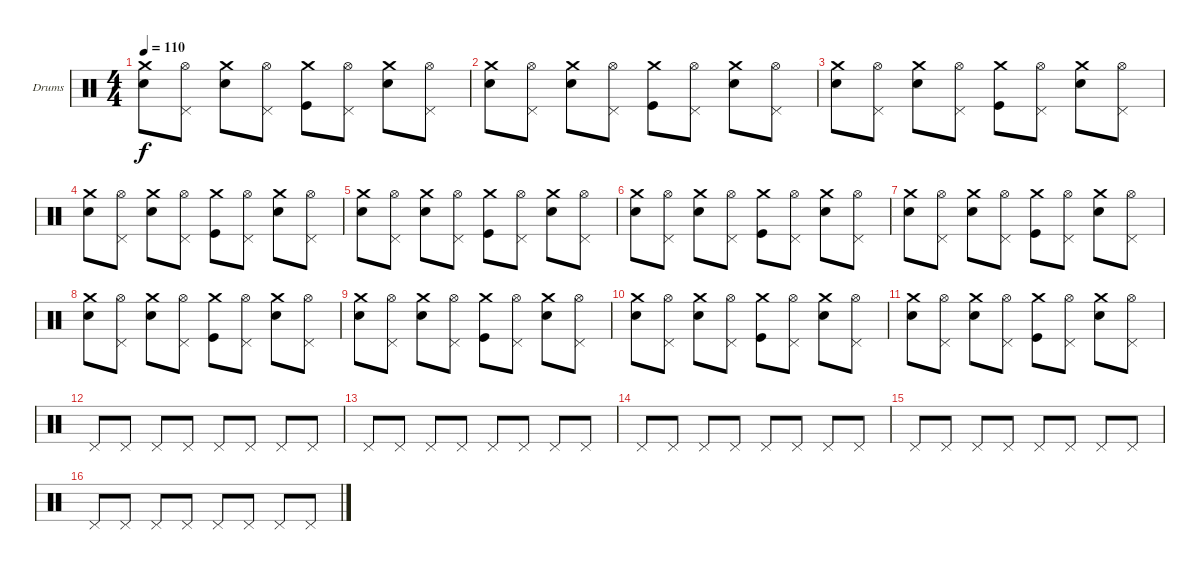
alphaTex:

\defaultSystemsLayout 4
\bracketExtendMode groupsimilarinstruments
\firstSystemTrackNameOrientation horizontal
\otherSystemsTrackNameOrientation horizontal
\track ("Е. Кулаков" "Drums") {instrument percussion}
\staff {score}
\articulation defaults
\ts (4 4)
\tempo 110
\clef neutral
\ks c
("Snare (hit) 2" "Crash medium (hit)").8{dy f} ("Pedal Hi-Hat (hit)" "Hi-Hat (open)").8 ("Snare (hit) 2" "Crash medium (hit)").8 ("Pedal Hi-Hat (hit)" "Hi-Hat (open)").8 ("Kick (hit)" "Crash medium (hit)").8 ("Pedal Hi-Hat (hit)" "Hi-Hat (open)").8 ("Snare (hit) 2" "Crash medium (hit)").8 ("Pedal Hi-Hat (hit)" "Hi-Hat (open)").8 |
("Snare (hit) 2" "Crash medium (hit)").8 ("Pedal Hi-Hat (hit)" "Hi-Hat (open)").8 ("Snare (hit) 2" "Crash medium (hit)").8 ("Pedal Hi-Hat (hit)" "Hi-Hat (open)").8 ("Kick (hit)" "Crash medium (hit)").8 ("Pedal Hi-Hat (hit)" "Hi-Hat (open)").8 ("Snare (hit) 2" "Crash medium (hit)").8 ("Pedal Hi-Hat (hit)" "Hi-Hat (open)").8 |
("Snare (hit) 2" "Crash medium (hit)").8 ("Pedal Hi-Hat (hit)" "Hi-Hat (open)").8 ("Snare (hit) 2" "Crash medium (hit)").8 ("Pedal Hi-Hat (hit)" "Hi-Hat (open)").8 ("Kick (hit)" "Crash medium (hit)").8 ("Pedal Hi-Hat (hit)" "Hi-Hat (open)").8 ("Snare (hit) 2" "Crash medium (hit)").8 ("Pedal Hi-Hat (hit)" "Hi-Hat (open)").8 |
("Snare (hit) 2" "Crash medium (hit)").8 ("Pedal Hi-Hat (hit)" "Hi-Hat (open)").8 ("Snare (hit) 2" "Crash medium (hit)").8 ("Pedal Hi-Hat (hit)" "Hi-Hat (open)").8 ("Kick (hit)" "Crash medium (hit)").8 ("Pedal Hi-Hat (hit)" "Hi-Hat (open)").8 ("Snare (hit) 2" "Crash medium (hit)").8 ("Pedal Hi-Hat (hit)" "Hi-Hat (open)").8 |
("Snare (hit) 2" "Crash medium (hit)").8 ("Pedal Hi-Hat (hit)" "Hi-Hat (open)").8 ("Snare (hit) 2" "Crash medium (hit)").8 ("Pedal Hi-Hat (hit)" "Hi-Hat (open)").8 ("Kick (hit)" "Crash medium (hit)").8 ("Pedal Hi-Hat (hit)" "Hi-Hat (open)").8 ("Snare (hit) 2" "Crash medium (hit)").8 ("Pedal Hi-Hat (hit)" "Hi-Hat (open)").8 |
("Snare (hit) 2" "Crash medium (hit)").8 ("Pedal Hi-Hat (hit)" "Hi-Hat (open)").8 ("Snare (hit) 2" "Crash medium (hit)").8 ("Pedal Hi-Hat (hit)" "Hi-Hat (open)").8 ("Kick (hit)" "Crash medium (hit)").8 ("Pedal Hi-Hat (hit)" "Hi-Hat (open)").8 ("Snare (hit) 2" "Crash medium (hit)").8 ("Pedal Hi-Hat (hit)" "Hi-Hat (open)").8 |
("Snare (hit) 2" "Crash medium (hit)").8 ("Pedal Hi-Hat (hit)" "Hi-Hat (open)").8 ("Snare (hit) 2" "Crash medium (hit)").8 ("Pedal Hi-Hat (hit)" "Hi-Hat (open)").8 ("Kick (hit)" "Crash medium (hit)").8 ("Pedal Hi-Hat (hit)" "Hi-Hat (open)").8 ("Snare (hit) 2" "Crash medium (hit)").8 ("Pedal Hi-Hat (hit)" "Hi-Hat (open)").8 |
("Snare (hit) 2" "Crash medium (hit)").8 ("Pedal Hi-Hat (hit)" "Hi-Hat (open)").8 ("Snare (hit) 2" "Crash medium (hit)").8 ("Pedal Hi-Hat (hit)" "Hi-Hat (open)").8 ("Kick (hit)" "Crash medium (hit)").8 ("Pedal Hi-Hat (hit)" "Hi-Hat (open)").8 ("Snare (hit) 2" "Crash medium (hit)").8 ("Pedal Hi-Hat (hit)" "Hi-Hat (open)").8 |
("Snare (hit) 2" "Crash medium (hit)").8 ("Pedal Hi-Hat (hit)" "Hi-Hat (open)").8 ("Snare (hit) 2" "Crash medium (hit)").8 ("Pedal Hi-Hat (hit)" "Hi-Hat (open)").8 ("Kick (hit)" "Crash medium (hit)").8 ("Pedal Hi-Hat (hit)" "Hi-Hat (open)").8 ("Snare (hit) 2" "Crash medium (hit)").8 ("Pedal Hi-Hat (hit)" "Hi-Hat (open)").8 |
("Snare (hit) 2" "Crash medium (hit)").8 ("Pedal Hi-Hat (hit)" "Hi-Hat (open)").8 ("Snare (hit) 2" "Crash medium (hit)").8 ("Pedal Hi-Hat (hit)" "Hi-Hat (open)").8 ("Kick (hit)" "Crash medium (hit)").8 ("Pedal Hi-Hat (hit)" "Hi-Hat (open)").8 ("Snare (hit) 2" "Crash medium (hit)").8 ("Pedal Hi-Hat (hit)" "Hi-Hat (open)").8 |
("Snare (hit) 2" "Crash medium (hit)").8 ("Pedal Hi-Hat (hit)" "Hi-Hat (open)").8 ("Snare (hit) 2" "Crash medium (hit)").8 ("Pedal Hi-Hat (hit)" "Hi-Hat (open)").8 ("Kick (hit)" "Crash medium (hit)").8 ("Pedal Hi-Hat (hit)" "Hi-Hat (open)").8 ("Snare (hit) 2" "Crash medium (hit)").8 ("Pedal Hi-Hat (hit)" "Hi-Hat (open)").8 |
"Pedal Hi-Hat (hit)".8 "Pedal Hi-Hat (hit)".8 "Pedal Hi-Hat (hit)".8 "Pedal Hi-Hat (hit)".8 "Pedal Hi-Hat (hit)".8 "Pedal Hi-Hat (hit)".8 "Pedal Hi-Hat (hit)".8 "Pedal Hi-Hat (hit)".8 |
"Pedal Hi-Hat (hit)".8 "Pedal Hi-Hat (hit)".8 "Pedal Hi-Hat (hit)".8 "Pedal Hi-Hat (hit)".8 "Pedal Hi-Hat (hit)".8 "Pedal Hi-Hat (hit)".8 "Pedal Hi-Hat (hit)".8 "Pedal Hi-Hat (hit)".8 |
"Pedal Hi-Hat (hit)".8 "Pedal Hi-Hat (hit)".8 "Pedal Hi-Hat (hit)".8 "Pedal Hi-Hat (hit)".8 "Pedal Hi-Hat (hit)".8 "Pedal Hi-Hat (hit)".8 "Pedal Hi-Hat (hit)".8 "Pedal Hi-Hat (hit)".8 |
"Pedal Hi-Hat (hit)".8 "Pedal Hi-Hat (hit)".8 "Pedal Hi-Hat (hit)".8 "Pedal Hi-Hat (hit)".8 "Pedal Hi-Hat (hit)".8 "Pedal Hi-Hat (hit)".8 "Pedal Hi-Hat (hit)".8 "Pedal Hi-Hat (hit)".8 |
"Pedal Hi-Hat (hit)".8 "Pedal Hi-Hat (hit)".8 "Pedal Hi-Hat (hit)".8 "Pedal Hi-Hat (hit)".8 "Pedal Hi-Hat (hit)".8 "Pedal Hi-Hat (hit)".8 "Pedal Hi-Hat (hit)".8 "Pedal Hi-Hat (hit)".8
